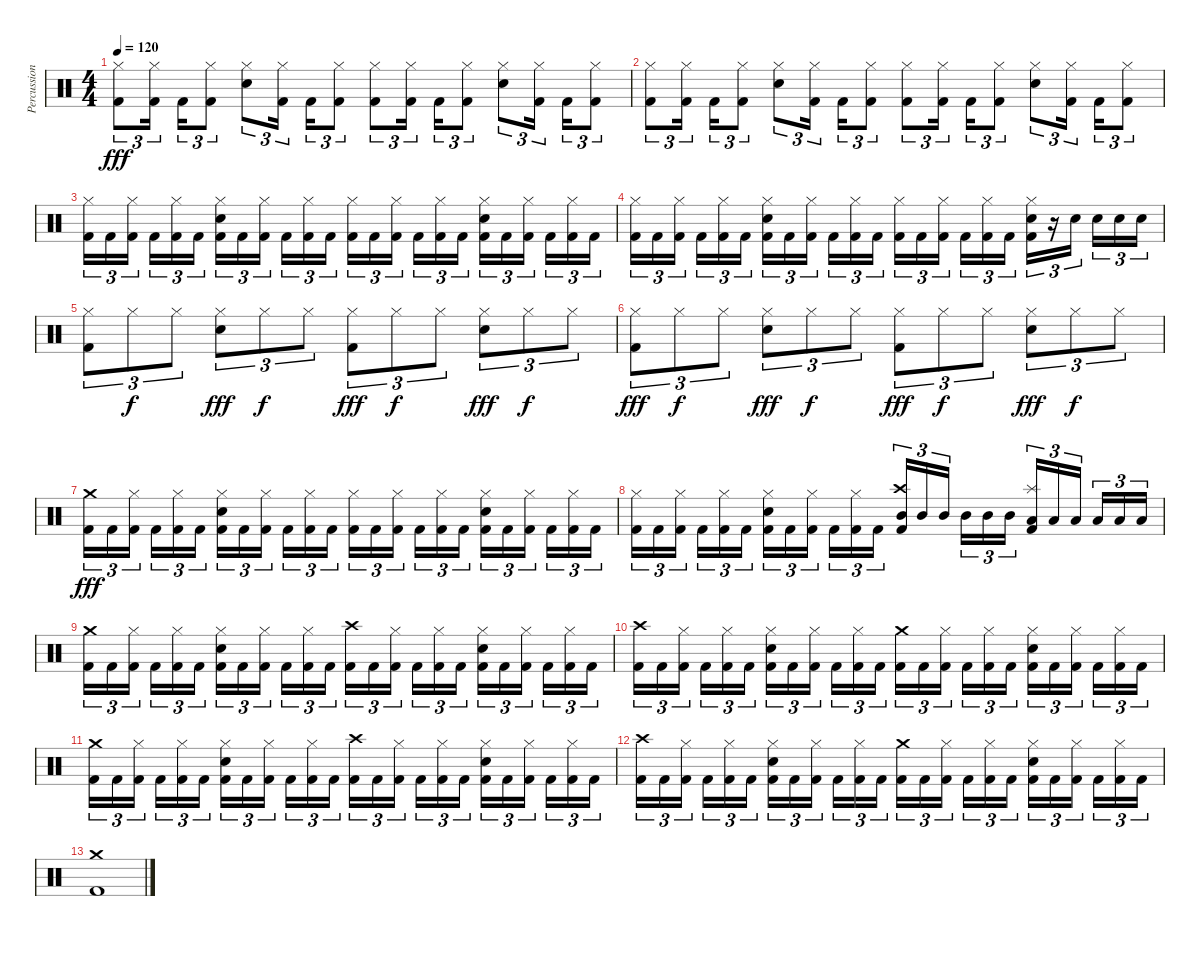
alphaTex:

\track ("Percussions" "Percussion") {instrument percussion}
\staff {score}
\articulation defaults
\ts (4 4)
\tempo 120
\clef neutral
\ks c
("Hi-Hat (closed)" "Kick (hit) 2").8{tu (3 2) dy fff} ("Hi-Hat (closed)" "Kick (hit) 2").16{tu (3 2) beam splitsecondary} "Kick (hit) 2".16{tu (3 2)} ("Hi-Hat (closed)" "Kick (hit) 2").8{tu (3 2)} ("Hi-Hat (closed)" "Snare (hit) 2").8{tu (3 2)} ("Hi-Hat (closed)" "Kick (hit) 2").16{tu (3 2) beam splitsecondary} "Kick (hit) 2".16{tu (3 2)} ("Hi-Hat (closed)" "Kick (hit) 2").8{tu (3 2)} ("Hi-Hat (closed)" "Kick (hit) 2").8{tu (3 2)} ("Hi-Hat (closed)" "Kick (hit) 2").16{tu (3 2) beam splitsecondary} "Kick (hit) 2".16{tu (3 2)} ("Hi-Hat (closed)" "Kick (hit) 2").8{tu (3 2)} ("Hi-Hat (closed)" "Snare (hit) 2").8{tu (3 2)} ("Hi-Hat (closed)" "Kick (hit) 2").16{tu (3 2) beam splitsecondary} "Kick (hit) 2".16{tu (3 2)} ("Hi-Hat (closed)" "Kick (hit) 2").8{tu (3 2)} |
("Hi-Hat (closed)" "Kick (hit) 2").8{tu (3 2)} ("Hi-Hat (closed)" "Kick (hit) 2").16{tu (3 2) beam splitsecondary} "Kick (hit) 2".16{tu (3 2)} ("Hi-Hat (closed)" "Kick (hit) 2").8{tu (3 2)} ("Hi-Hat (closed)" "Snare (hit) 2").8{tu (3 2)} ("Hi-Hat (closed)" "Kick (hit) 2").16{tu (3 2) beam splitsecondary} "Kick (hit) 2".16{tu (3 2)} ("Hi-Hat (closed)" "Kick (hit) 2").8{tu (3 2)} ("Hi-Hat (closed)" "Kick (hit) 2").8{tu (3 2)} ("Hi-Hat (closed)" "Kick (hit) 2").16{tu (3 2) beam splitsecondary} "Kick (hit) 2".16{tu (3 2)} ("Hi-Hat (closed)" "Kick (hit) 2").8{tu (3 2)} ("Hi-Hat (closed)" "Snare (hit) 2").8{tu (3 2)} ("Hi-Hat (closed)" "Kick (hit) 2").16{tu (3 2) beam splitsecondary} "Kick (hit) 2".16{tu (3 2)} ("Hi-Hat (closed)" "Kick (hit) 2").8{tu (3 2)} |
("Hi-Hat (closed)" "Kick (hit) 2").16{tu (3 2)} "Kick (hit) 2".16{tu (3 2)} ("Hi-Hat (closed)" "Kick (hit) 2").16{tu (3 2) beam splitsecondary} "Kick (hit) 2".16{tu (3 2)} ("Hi-Hat (closed)" "Kick (hit) 2").16{tu (3 2)} "Kick (hit) 2".16{tu (3 2)} ("Hi-Hat (closed)" "Snare (hit) 2" "Kick (hit) 2").16{tu (3 2)} "Kick (hit) 2".16{tu (3 2)} ("Hi-Hat (closed)" "Kick (hit) 2").16{tu (3 2) beam splitsecondary} "Kick (hit) 2".16{tu (3 2)} ("Hi-Hat (closed)" "Kick (hit) 2").16{tu (3 2)} "Kick (hit) 2".16{tu (3 2)} ("Hi-Hat (closed)" "Kick (hit) 2").16{tu (3 2)} "Kick (hit) 2".16{tu (3 2)} ("Hi-Hat (closed)" "Kick (hit) 2").16{tu (3 2) beam splitsecondary} "Kick (hit) 2".16{tu (3 2)} ("Hi-Hat (closed)" "Kick (hit) 2").16{tu (3 2)} "Kick (hit) 2".16{tu (3 2)} ("Hi-Hat (closed)" "Snare (hit) 2" "Kick (hit) 2").16{tu (3 2)} "Kick (hit) 2".16{tu (3 2)} ("Hi-Hat (closed)" "Kick (hit) 2").16{tu (3 2) beam splitsecondary} "Kick (hit) 2".16{tu (3 2)} ("Hi-Hat (closed)" "Kick (hit) 2").16{tu (3 2)} "Kick (hit) 2".16{tu (3 2)} |
("Hi-Hat (closed)" "Kick (hit) 2").16{tu (3 2)} "Kick (hit) 2".16{tu (3 2)} ("Hi-Hat (closed)" "Kick (hit) 2").16{tu (3 2) beam splitsecondary} "Kick (hit) 2".16{tu (3 2)} ("Hi-Hat (closed)" "Kick (hit) 2").16{tu (3 2)} "Kick (hit) 2".16{tu (3 2)} ("Hi-Hat (closed)" "Snare (hit) 2" "Kick (hit) 2").16{tu (3 2)} "Kick (hit) 2".16{tu (3 2)} ("Hi-Hat (closed)" "Kick (hit) 2").16{tu (3 2) beam splitsecondary} "Kick (hit) 2".16{tu (3 2)} ("Hi-Hat (closed)" "Kick (hit) 2").16{tu (3 2)} "Kick (hit) 2".16{tu (3 2)} ("Hi-Hat (closed)" "Kick (hit) 2").16{tu (3 2)} "Kick (hit) 2".16{tu (3 2)} ("Hi-Hat (closed)" "Kick (hit) 2").16{tu (3 2) beam splitsecondary} "Kick (hit) 2".16{tu (3 2)} ("Hi-Hat (closed)" "Kick (hit) 2").16{tu (3 2)} "Kick (hit) 2".16{tu (3 2)} ("Hi-Hat (closed)" "Snare (hit) 2" "Kick (hit) 2").16{tu (3 2)} r.16{tu (3 2)} "Snare (hit) 2".16{tu (3 2) beam splitsecondary} "Snare (hit) 2".16{tu (3 2)} "Snare (hit) 2".16{tu (3 2)} "Snare (hit) 2".16{tu (3 2)} |
("Hi-Hat (closed)" "Kick (hit) 2").8{tu (3 2)} "Hi-Hat (closed)".8{tu (3 2) dy f} "Hi-Hat (closed)".8{tu (3 2)} ("Hi-Hat (closed)" "Electric Snare (hit)").8{tu (3 2) dy fff} "Hi-Hat (closed)".8{tu (3 2) dy f} "Hi-Hat (closed)".8{tu (3 2)} ("Hi-Hat (closed)" "Kick (hit) 2").8{tu (3 2) dy fff} "Hi-Hat (closed)".8{tu (3 2) dy f} "Hi-Hat (closed)".8{tu (3 2)} ("Hi-Hat (closed)" "Electric Snare (hit)").8{tu (3 2) dy fff} "Hi-Hat (closed)".8{tu (3 2) dy f} "Hi-Hat (closed)".8{tu (3 2)} |
("Hi-Hat (closed)" "Kick (hit) 2").8{tu (3 2) dy fff} "Hi-Hat (closed)".8{tu (3 2) dy f} "Hi-Hat (closed)".8{tu (3 2)} ("Hi-Hat (closed)" "Electric Snare (hit)").8{tu (3 2) dy fff} "Hi-Hat (closed)".8{tu (3 2) dy f} "Hi-Hat (closed)".8{tu (3 2)} ("Hi-Hat (closed)" "Kick (hit) 2").8{tu (3 2) dy fff} "Hi-Hat (closed)".8{tu (3 2) dy f} "Hi-Hat (closed)".8{tu (3 2)} ("Hi-Hat (closed)" "Electric Snare (hit)").8{tu (3 2) dy fff} "Hi-Hat (closed)".8{tu (3 2) dy f} "Hi-Hat (closed)".8{tu (3 2)} |
("Crash medium (hit)" "Kick (hit) 2").16{tu (3 2) dy fff} "Kick (hit) 2".16{tu (3 2)} ("Hi-Hat (closed)" "Kick (hit) 2").16{tu (3 2) beam splitsecondary} "Kick (hit) 2".16{tu (3 2)} ("Hi-Hat (closed)" "Kick (hit) 2").16{tu (3 2)} "Kick (hit) 2".16{tu (3 2)} ("Hi-Hat (closed)" "Electric Snare (hit)" "Kick (hit) 2").16{tu (3 2)} "Kick (hit) 2".16{tu (3 2)} ("Hi-Hat (closed)" "Kick (hit) 2").16{tu (3 2) beam splitsecondary} "Kick (hit) 2".16{tu (3 2)} ("Hi-Hat (closed)" "Kick (hit) 2").16{tu (3 2)} "Kick (hit) 2".16{tu (3 2)} ("Hi-Hat (closed)" "Kick (hit) 2").16{tu (3 2)} "Kick (hit) 2".16{tu (3 2)} ("Hi-Hat (closed)" "Kick (hit) 2").16{tu (3 2) beam splitsecondary} "Kick (hit) 2".16{tu (3 2)} ("Hi-Hat (closed)" "Kick (hit) 2").16{tu (3 2)} "Kick (hit) 2".16{tu (3 2)} ("Hi-Hat (closed)" "Electric Snare (hit)" "Kick (hit) 2").16{tu (3 2)} "Kick (hit) 2".16{tu (3 2)} ("Hi-Hat (closed)" "Kick (hit) 2").16{tu (3 2) beam splitsecondary} "Kick (hit) 2".16{tu (3 2)} ("Hi-Hat (closed)" "Kick (hit) 2").16{tu (3 2)} "Kick (hit) 2".16{tu (3 2)} |
("Hi-Hat (closed)" "Kick (hit) 2").16{tu (3 2)} "Kick (hit) 2".16{tu (3 2)} ("Hi-Hat (closed)" "Kick (hit) 2").16{tu (3 2) beam splitsecondary} "Kick (hit) 2".16{tu (3 2)} ("Hi-Hat (closed)" "Kick (hit) 2").16{tu (3 2)} "Kick (hit) 2".16{tu (3 2)} ("Hi-Hat (closed)" "Electric Snare (hit)" "Kick (hit) 2").16{tu (3 2)} "Kick (hit) 2".16{tu (3 2)} ("Hi-Hat (closed)" "Kick (hit) 2").16{tu (3 2) beam splitsecondary} "Kick (hit) 2".16{tu (3 2)} ("Hi-Hat (closed)" "Kick (hit) 2").16{tu (3 2)} "Kick (hit) 2".16{tu (3 2)} ("Crash high (hit)" "Mid Tom (hit)" "Kick (hit) 2").16{tu (3 2)} "Mid Tom (hit)".16{tu (3 2)} "Mid Tom (hit)".16{tu (3 2) beam splitsecondary} "Mid Tom (hit)".16{tu (3 2)} "Mid Tom (hit)".16{tu (3 2)} "Mid Tom (hit)".16{tu (3 2)} ("Splash (hit)" "Low Tom (hit)" "Kick (hit) 2").16{tu (3 2)} "Low Tom (hit)".16{tu (3 2)} "Low Tom (hit)".16{tu (3 2) beam splitsecondary} "Low Tom (hit)".16{tu (3 2)} "Low Tom (hit)".16{tu (3 2)} "Low Tom (hit)".16{tu (3 2)} |
("Crash medium (hit)" "Kick (hit) 2").16{tu (3 2)} "Kick (hit) 2".16{tu (3 2)} ("Hi-Hat (closed)" "Kick (hit) 2").16{tu (3 2) beam splitsecondary} "Kick (hit) 2".16{tu (3 2)} ("Hi-Hat (closed)" "Kick (hit) 2").16{tu (3 2)} "Kick (hit) 2".16{tu (3 2)} ("Hi-Hat (closed)" "Snare (hit) 2" "Kick (hit) 2").16{tu (3 2)} "Kick (hit) 2".16{tu (3 2)} ("Hi-Hat (closed)" "Kick (hit) 2").16{tu (3 2) beam splitsecondary} "Kick (hit) 2".16{tu (3 2)} ("Hi-Hat (closed)" "Kick (hit) 2").16{tu (3 2)} "Kick (hit) 2".16{tu (3 2)} ("Crash high (hit)" "Kick (hit) 2").16{tu (3 2)} "Kick (hit) 2".16{tu (3 2)} ("Hi-Hat (closed)" "Kick (hit) 2").16{tu (3 2) beam splitsecondary} "Kick (hit) 2".16{tu (3 2)} ("Hi-Hat (closed)" "Kick (hit) 2").16{tu (3 2)} "Kick (hit) 2".16{tu (3 2)} ("Hi-Hat (closed)" "Snare (hit) 2" "Kick (hit) 2").16{tu (3 2)} "Kick (hit) 2".16{tu (3 2)} ("Hi-Hat (closed)" "Kick (hit) 2").16{tu (3 2) beam splitsecondary} "Kick (hit) 2".16{tu (3 2)} ("Hi-Hat (closed)" "Kick (hit) 2").16{tu (3 2)} "Kick (hit) 2".16{tu (3 2)} |
("Crash high (hit)" "Kick (hit) 2").16{tu (3 2)} "Kick (hit) 2".16{tu (3 2)} ("Hi-Hat (closed)" "Kick (hit) 2").16{tu (3 2) beam splitsecondary} "Kick (hit) 2".16{tu (3 2)} ("Hi-Hat (closed)" "Kick (hit) 2").16{tu (3 2)} "Kick (hit) 2".16{tu (3 2)} ("Hi-Hat (closed)" "Snare (hit) 2" "Kick (hit) 2").16{tu (3 2)} "Kick (hit) 2".16{tu (3 2)} ("Hi-Hat (closed)" "Kick (hit) 2").16{tu (3 2) beam splitsecondary} "Kick (hit) 2".16{tu (3 2)} ("Hi-Hat (closed)" "Kick (hit) 2").16{tu (3 2)} "Kick (hit) 2".16{tu (3 2)} ("Crash medium (hit)" "Kick (hit) 2").16{tu (3 2)} "Kick (hit) 2".16{tu (3 2)} ("Hi-Hat (closed)" "Kick (hit) 2").16{tu (3 2) beam splitsecondary} "Kick (hit) 2".16{tu (3 2)} ("Hi-Hat (closed)" "Kick (hit) 2").16{tu (3 2)} "Kick (hit) 2".16{tu (3 2)} ("Hi-Hat (closed)" "Snare (hit) 2" "Kick (hit) 2").16{tu (3 2)} "Kick (hit) 2".16{tu (3 2)} ("Hi-Hat (closed)" "Kick (hit) 2").16{tu (3 2) beam splitsecondary} "Kick (hit) 2".16{tu (3 2)} ("Hi-Hat (closed)" "Kick (hit) 2").16{tu (3 2)} "Kick (hit) 2".16{tu (3 2)} |
("Crash medium (hit)" "Kick (hit) 2").16{tu (3 2)} "Kick (hit) 2".16{tu (3 2)} ("Hi-Hat (closed)" "Kick (hit) 2").16{tu (3 2) beam splitsecondary} "Kick (hit) 2".16{tu (3 2)} ("Hi-Hat (closed)" "Kick (hit) 2").16{tu (3 2)} "Kick (hit) 2".16{tu (3 2)} ("Hi-Hat (closed)" "Snare (hit) 2" "Kick (hit) 2").16{tu (3 2)} "Kick (hit) 2".16{tu (3 2)} ("Hi-Hat (closed)" "Kick (hit) 2").16{tu (3 2) beam splitsecondary} "Kick (hit) 2".16{tu (3 2)} ("Hi-Hat (closed)" "Kick (hit) 2").16{tu (3 2)} "Kick (hit) 2".16{tu (3 2)} ("Crash high (hit)" "Kick (hit) 2").16{tu (3 2)} "Kick (hit) 2".16{tu (3 2)} ("Hi-Hat (closed)" "Kick (hit) 2").16{tu (3 2) beam splitsecondary} "Kick (hit) 2".16{tu (3 2)} ("Hi-Hat (closed)" "Kick (hit) 2").16{tu (3 2)} "Kick (hit) 2".16{tu (3 2)} ("Hi-Hat (closed)" "Snare (hit) 2" "Kick (hit) 2").16{tu (3 2)} "Kick (hit) 2".16{tu (3 2)} ("Hi-Hat (closed)" "Kick (hit) 2").16{tu (3 2) beam splitsecondary} "Kick (hit) 2".16{tu (3 2)} ("Hi-Hat (closed)" "Kick (hit) 2").16{tu (3 2)} "Kick (hit) 2".16{tu (3 2)} |
("Crash high (hit)" "Kick (hit) 2").16{tu (3 2)} "Kick (hit) 2".16{tu (3 2)} ("Hi-Hat (closed)" "Kick (hit) 2").16{tu (3 2) beam splitsecondary} "Kick (hit) 2".16{tu (3 2)} ("Hi-Hat (closed)" "Kick (hit) 2").16{tu (3 2)} "Kick (hit) 2".16{tu (3 2)} ("Hi-Hat (closed)" "Snare (hit) 2" "Kick (hit) 2").16{tu (3 2)} "Kick (hit) 2".16{tu (3 2)} ("Hi-Hat (closed)" "Kick (hit) 2").16{tu (3 2) beam splitsecondary} "Kick (hit) 2".16{tu (3 2)} ("Hi-Hat (closed)" "Kick (hit) 2").16{tu (3 2)} "Kick (hit) 2".16{tu (3 2)} ("Crash medium (hit)" "Kick (hit) 2").16{tu (3 2)} "Kick (hit) 2".16{tu (3 2)} ("Hi-Hat (closed)" "Kick (hit) 2").16{tu (3 2) beam splitsecondary} "Kick (hit) 2".16{tu (3 2)} ("Hi-Hat (closed)" "Kick (hit) 2").16{tu (3 2)} "Kick (hit) 2".16{tu (3 2)} ("Hi-Hat (closed)" "Snare (hit) 2" "Kick (hit) 2").16{tu (3 2)} "Kick (hit) 2".16{tu (3 2)} ("Hi-Hat (closed)" "Kick (hit) 2").16{tu (3 2) beam splitsecondary} "Kick (hit) 2".16{tu (3 2)} ("Hi-Hat (closed)" "Kick (hit) 2").16{tu (3 2)} "Kick (hit) 2".16{tu (3 2)} |
("Crash medium (hit)" "Kick (hit) 2").1
